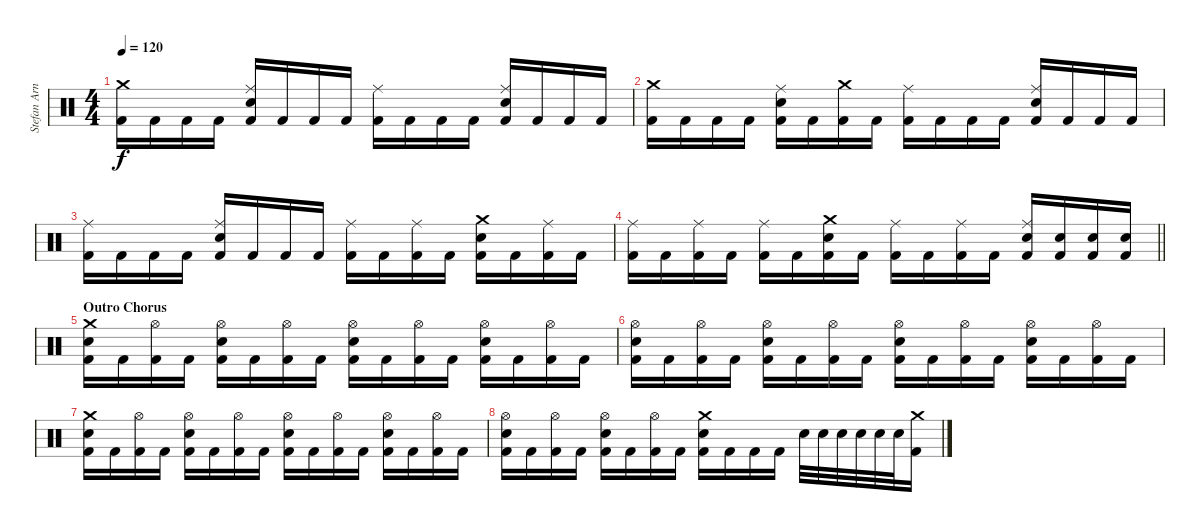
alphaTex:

\track ("Stefan Arnold" "Stefan Arn") {instrument percussion}
\staff {score}
\articulation defaults
\ts (4 4)
\tempo 120
\clef neutral
\ks c
("Crash medium (hit)" "Kick (hit) 2").16{dy f} "Kick (hit) 2".16 "Kick (hit) 2".16 "Kick (hit) 2".16 ("Ride (middle)" "Electric Snare (hit)" "Kick (hit) 2").16 "Kick (hit) 2".16 "Kick (hit) 2".16 "Kick (hit) 2".16 ("Ride (middle)" "Kick (hit) 2").16 "Kick (hit) 2".16 "Kick (hit) 2".16 "Kick (hit) 2".16 ("Ride (middle)" "Electric Snare (hit)" "Kick (hit) 2").16 "Kick (hit) 2".16 "Kick (hit) 2".16 "Kick (hit) 2".16 |
("Crash medium (hit)" "Kick (hit) 2").16 "Kick (hit) 2".16 "Kick (hit) 2".16 "Kick (hit) 2".16 ("Ride (middle)" "Electric Snare (hit)" "Kick (hit) 2").16 "Kick (hit) 2".16 ("Crash medium (hit)" "Kick (hit) 2").16 "Kick (hit) 2".16 ("Ride (middle)" "Kick (hit) 2").16 "Kick (hit) 2".16 "Kick (hit) 2".16 "Kick (hit) 2".16 ("Ride (middle)" "Electric Snare (hit)" "Kick (hit) 2").16 "Kick (hit) 2".16 "Kick (hit) 2".16 "Kick (hit) 2".16 |
("Ride (middle)" "Kick (hit) 2").16 "Kick (hit) 2".16 "Kick (hit) 2".16 "Kick (hit) 2".16 ("Ride (middle)" "Electric Snare (hit)" "Kick (hit) 2").16 "Kick (hit) 2".16 "Kick (hit) 2".16 "Kick (hit) 2".16 ("Ride (middle)" "Kick (hit) 2").16 "Kick (hit) 2".16 ("Ride (middle)" "Kick (hit) 2").16 "Kick (hit) 2".16 ("Crash medium (hit)" "Electric Snare (hit)" "Kick (hit) 2").16 "Kick (hit) 2".16 ("Ride (middle)" "Kick (hit) 2").16 "Kick (hit) 2".16 |
\barLineRight lightlight
("Ride (middle)" "Kick (hit) 2").16 "Kick (hit) 2".16 ("Ride (middle)" "Kick (hit) 2").16 "Kick (hit) 2".16 ("Ride (middle)" "Kick (hit) 2").16 "Kick (hit) 2".16 ("Crash medium (hit)" "Electric Snare (hit)" "Kick (hit) 2").16 "Kick (hit) 2".16 ("Ride (middle)" "Kick (hit) 2").16 "Kick (hit) 2".16 ("Ride (middle)" "Kick (hit) 2").16 "Kick (hit) 2".16 ("Ride (middle)" "Electric Snare (hit)" "Kick (hit) 2").16 ("Electric Snare (hit)" "Kick (hit) 2").16 ("Electric Snare (hit)" "Kick (hit) 2").16 ("Electric Snare (hit)" "Kick (hit) 2").16 |
\section ("" "Outro Chorus")
("Crash medium (hit)" "Electric Snare (hit)" "Kick (hit) 2").16 "Kick (hit) 2".16 ("Hi-Hat (open)" "Kick (hit) 2").16 "Kick (hit) 2".16 ("Hi-Hat (open)" "Electric Snare (hit)" "Kick (hit) 2").16 "Kick (hit) 2".16 ("Hi-Hat (open)" "Kick (hit) 2").16 "Kick (hit) 2".16 ("Hi-Hat (open)" "Electric Snare (hit)" "Kick (hit) 2").16 "Kick (hit) 2".16 ("Hi-Hat (open)" "Kick (hit) 2").16 "Kick (hit) 2".16 ("Hi-Hat (open)" "Electric Snare (hit)" "Kick (hit) 2").16 "Kick (hit) 2".16 ("Hi-Hat (open)" "Kick (hit) 2").16 "Kick (hit) 2".16 |
("Hi-Hat (open)" "Electric Snare (hit)" "Kick (hit) 2").16 "Kick (hit) 2".16 ("Hi-Hat (open)" "Kick (hit) 2").16 "Kick (hit) 2".16 ("Hi-Hat (open)" "Electric Snare (hit)" "Kick (hit) 2").16 "Kick (hit) 2".16 ("Hi-Hat (open)" "Kick (hit) 2").16 "Kick (hit) 2".16 ("Hi-Hat (open)" "Electric Snare (hit)" "Kick (hit) 2").16 "Kick (hit) 2".16 ("Hi-Hat (open)" "Kick (hit) 2").16 "Kick (hit) 2".16 ("Hi-Hat (open)" "Electric Snare (hit)" "Kick (hit) 2").16 "Kick (hit) 2".16 ("Hi-Hat (open)" "Kick (hit) 2").16 "Kick (hit) 2".16 |
("Crash medium (hit)" "Electric Snare (hit)" "Kick (hit) 2").16 "Kick (hit) 2".16 ("Hi-Hat (open)" "Kick (hit) 2").16 "Kick (hit) 2".16 ("Hi-Hat (open)" "Electric Snare (hit)" "Kick (hit) 2").16 "Kick (hit) 2".16 ("Hi-Hat (open)" "Kick (hit) 2").16 "Kick (hit) 2".16 ("Hi-Hat (open)" "Electric Snare (hit)" "Kick (hit) 2").16 "Kick (hit) 2".16 ("Hi-Hat (open)" "Kick (hit) 2").16 "Kick (hit) 2".16 ("Hi-Hat (open)" "Electric Snare (hit)" "Kick (hit) 2").16 "Kick (hit) 2".16 ("Hi-Hat (open)" "Kick (hit) 2").16 "Kick (hit) 2".16 |
("Hi-Hat (open)" "Electric Snare (hit)" "Kick (hit) 2").16 "Kick (hit) 2".16 ("Hi-Hat (open)" "Kick (hit) 2").16 "Kick (hit) 2".16 ("Hi-Hat (open)" "Electric Snare (hit)" "Kick (hit) 2").16 "Kick (hit) 2".16 ("Hi-Hat (open)" "Kick (hit) 2").16 "Kick (hit) 2".16 ("Crash medium (hit)" "Electric Snare (hit)" "Kick (hit) 2").16 "Kick (hit) 2".16 "Kick (hit) 2".16 "Kick (hit) 2".16 "Electric Snare (hit)".32 "Electric Snare (hit)".32 "Electric Snare (hit)".32 "Electric Snare (hit)".32 "Electric Snare (hit)".32 "Electric Snare (hit)".32 ("Crash medium (hit)" "Kick (hit) 2").16
